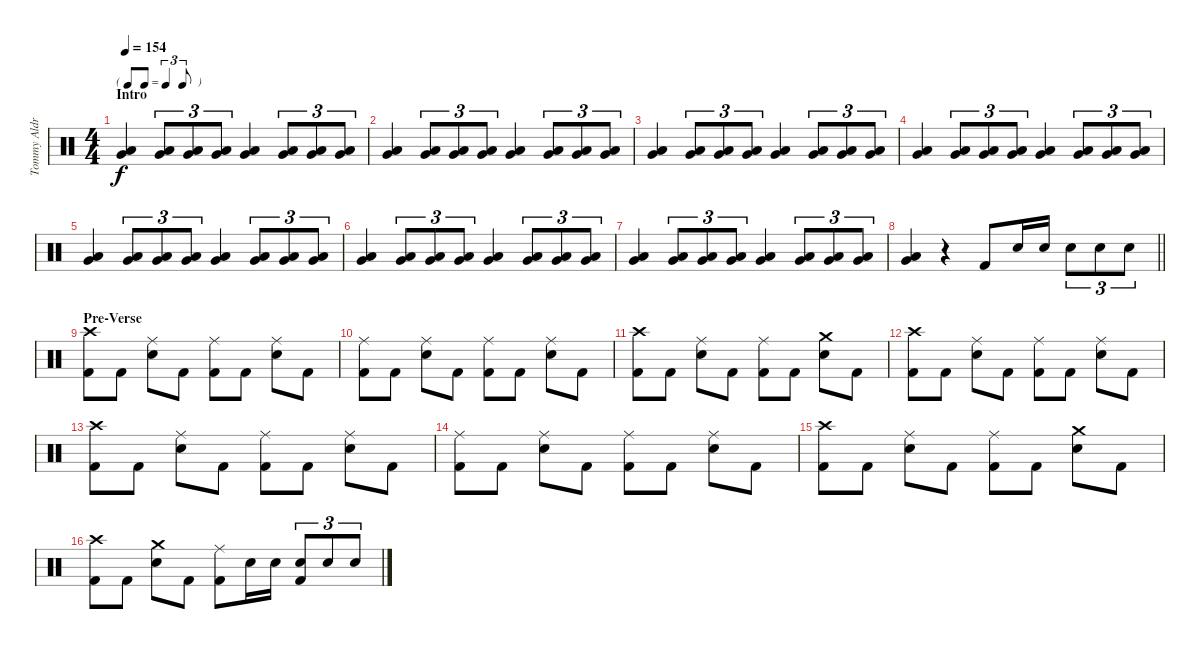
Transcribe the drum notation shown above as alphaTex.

\track ("Tommy Aldridge (Drums)" "Tommy Aldr") {instrument percussion}
\staff {score}
\articulation defaults
\ts (4 4)
\tf triplet8th
\section ("" "Intro")
\tempo 154
\clef neutral
\ks c
("Very Low Tom (hit)" "Low Floor Tom (hit)").4{dy f} ("Very Low Tom (hit)" "Low Floor Tom (hit)").8{tu (3 2)} ("Very Low Tom (hit)" "Low Floor Tom (hit)").8{tu (3 2)} ("Very Low Tom (hit)" "Low Floor Tom (hit)").8{tu (3 2)} ("Very Low Tom (hit)" "Low Floor Tom (hit)").4 ("Very Low Tom (hit)" "Low Floor Tom (hit)").8{tu (3 2)} ("Very Low Tom (hit)" "Low Floor Tom (hit)").8{tu (3 2)} ("Very Low Tom (hit)" "Low Floor Tom (hit)").8{tu (3 2)} |
("Very Low Tom (hit)" "Low Floor Tom (hit)").4 ("Very Low Tom (hit)" "Low Floor Tom (hit)").8{tu (3 2)} ("Very Low Tom (hit)" "Low Floor Tom (hit)").8{tu (3 2)} ("Very Low Tom (hit)" "Low Floor Tom (hit)").8{tu (3 2)} ("Very Low Tom (hit)" "Low Floor Tom (hit)").4 ("Very Low Tom (hit)" "Low Floor Tom (hit)").8{tu (3 2)} ("Very Low Tom (hit)" "Low Floor Tom (hit)").8{tu (3 2)} ("Very Low Tom (hit)" "Low Floor Tom (hit)").8{tu (3 2)} |
("Very Low Tom (hit)" "Low Floor Tom (hit)").4 ("Very Low Tom (hit)" "Low Floor Tom (hit)").8{tu (3 2)} ("Very Low Tom (hit)" "Low Floor Tom (hit)").8{tu (3 2)} ("Very Low Tom (hit)" "Low Floor Tom (hit)").8{tu (3 2)} ("Very Low Tom (hit)" "Low Floor Tom (hit)").4 ("Very Low Tom (hit)" "Low Floor Tom (hit)").8{tu (3 2)} ("Very Low Tom (hit)" "Low Floor Tom (hit)").8{tu (3 2)} ("Very Low Tom (hit)" "Low Floor Tom (hit)").8{tu (3 2)} |
("Very Low Tom (hit)" "Low Floor Tom (hit)").4 ("Very Low Tom (hit)" "Low Floor Tom (hit)").8{tu (3 2)} ("Very Low Tom (hit)" "Low Floor Tom (hit)").8{tu (3 2)} ("Very Low Tom (hit)" "Low Floor Tom (hit)").8{tu (3 2)} ("Very Low Tom (hit)" "Low Floor Tom (hit)").4 ("Very Low Tom (hit)" "Low Floor Tom (hit)").8{tu (3 2)} ("Very Low Tom (hit)" "Low Floor Tom (hit)").8{tu (3 2)} ("Very Low Tom (hit)" "Low Floor Tom (hit)").8{tu (3 2)} |
("Very Low Tom (hit)" "Low Floor Tom (hit)").4 ("Very Low Tom (hit)" "Low Floor Tom (hit)").8{tu (3 2)} ("Very Low Tom (hit)" "Low Floor Tom (hit)").8{tu (3 2)} ("Very Low Tom (hit)" "Low Floor Tom (hit)").8{tu (3 2)} ("Very Low Tom (hit)" "Low Floor Tom (hit)").4 ("Very Low Tom (hit)" "Low Floor Tom (hit)").8{tu (3 2)} ("Very Low Tom (hit)" "Low Floor Tom (hit)").8{tu (3 2)} ("Very Low Tom (hit)" "Low Floor Tom (hit)").8{tu (3 2)} |
("Very Low Tom (hit)" "Low Floor Tom (hit)").4 ("Very Low Tom (hit)" "Low Floor Tom (hit)").8{tu (3 2)} ("Very Low Tom (hit)" "Low Floor Tom (hit)").8{tu (3 2)} ("Very Low Tom (hit)" "Low Floor Tom (hit)").8{tu (3 2)} ("Very Low Tom (hit)" "Low Floor Tom (hit)").4 ("Very Low Tom (hit)" "Low Floor Tom (hit)").8{tu (3 2)} ("Very Low Tom (hit)" "Low Floor Tom (hit)").8{tu (3 2)} ("Very Low Tom (hit)" "Low Floor Tom (hit)").8{tu (3 2)} |
("Very Low Tom (hit)" "Low Floor Tom (hit)").4 ("Very Low Tom (hit)" "Low Floor Tom (hit)").8{tu (3 2)} ("Very Low Tom (hit)" "Low Floor Tom (hit)").8{tu (3 2)} ("Very Low Tom (hit)" "Low Floor Tom (hit)").8{tu (3 2)} ("Very Low Tom (hit)" "Low Floor Tom (hit)").4 ("Very Low Tom (hit)" "Low Floor Tom (hit)").8{tu (3 2)} ("Very Low Tom (hit)" "Low Floor Tom (hit)").8{tu (3 2)} ("Very Low Tom (hit)" "Low Floor Tom (hit)").8{tu (3 2)} |
\barLineRight lightlight
("Very Low Tom (hit)" "Low Floor Tom (hit)").4 r.4 "Kick (hit) 2".8 "Electric Snare (hit)".16 "Electric Snare (hit)".16 "Electric Snare (hit)".8{tu (3 2)} "Electric Snare (hit)".8{tu (3 2)} "Electric Snare (hit)".8{tu (3 2)} |
\section ("" "Pre-Verse")
("Crash high (hit)" "Kick (hit) 2").8 "Kick (hit) 2".8 ("Ride (middle)" "Electric Snare (hit)").8 "Kick (hit) 2".8 ("Ride (middle)" "Kick (hit) 2").8 "Kick (hit) 2".8 ("Ride (middle)" "Electric Snare (hit)").8 "Kick (hit) 2".8 |
("Ride (middle)" "Kick (hit) 2").8 "Kick (hit) 2".8 ("Ride (middle)" "Electric Snare (hit)").8 "Kick (hit) 2".8 ("Ride (middle)" "Kick (hit) 2").8 "Kick (hit) 2".8 ("Ride (middle)" "Electric Snare (hit)").8 "Kick (hit) 2".8 |
("Crash high (hit)" "Kick (hit) 2").8 "Kick (hit) 2".8 ("Ride (middle)" "Electric Snare (hit)").8 "Kick (hit) 2".8 ("Ride (middle)" "Kick (hit) 2").8 "Kick (hit) 2".8 ("Crash medium (hit)" "Electric Snare (hit)").8 "Kick (hit) 2".8 |
("Crash high (hit)" "Kick (hit) 2").8 "Kick (hit) 2".8 ("Ride (middle)" "Electric Snare (hit)").8 "Kick (hit) 2".8 ("Ride (middle)" "Kick (hit) 2").8 "Kick (hit) 2".8 ("Ride (middle)" "Electric Snare (hit)").8 "Kick (hit) 2".8 |
("Crash high (hit)" "Kick (hit) 2").8 "Kick (hit) 2".8 ("Ride (middle)" "Electric Snare (hit)").8 "Kick (hit) 2".8 ("Ride (middle)" "Kick (hit) 2").8 "Kick (hit) 2".8 ("Ride (middle)" "Electric Snare (hit)").8 "Kick (hit) 2".8 |
("Ride (middle)" "Kick (hit) 2").8 "Kick (hit) 2".8 ("Ride (middle)" "Electric Snare (hit)").8 "Kick (hit) 2".8 ("Ride (middle)" "Kick (hit) 2").8 "Kick (hit) 2".8 ("Ride (middle)" "Electric Snare (hit)").8 "Kick (hit) 2".8 |
("Crash high (hit)" "Kick (hit) 2").8 "Kick (hit) 2".8 ("Ride (middle)" "Electric Snare (hit)").8 "Kick (hit) 2".8 ("Ride (middle)" "Kick (hit) 2").8 "Kick (hit) 2".8 ("Crash medium (hit)" "Electric Snare (hit)").8 "Kick (hit) 2".8 |
("Crash high (hit)" "Kick (hit) 2").8 "Kick (hit) 2".8 ("Crash medium (hit)" "Electric Snare (hit)").8 "Kick (hit) 2".8 ("Ride (middle)" "Kick (hit) 2").8 "Electric Snare (hit)".16 "Electric Snare (hit)".16 ("Electric Snare (hit)" "Kick (hit) 2").8{tu (3 2)} "Electric Snare (hit)".8{tu (3 2)} "Electric Snare (hit)".8{tu (3 2)}
